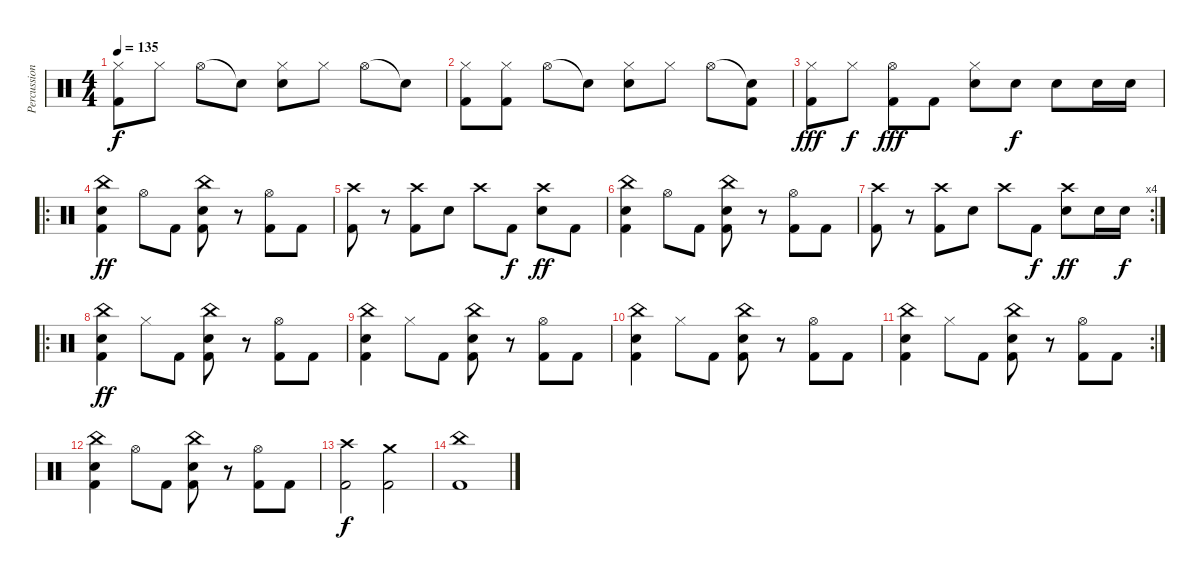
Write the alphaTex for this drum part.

\track ("Percussion" "Percussion") {instrument percussion}
\staff {score}
\articulation defaults
\ts (4 4)
\tempo 135
\clef neutral
\ks c
("Hi-Hat (closed)" "Kick (hit) 2").8{dy f} "Hi-Hat (closed)".8 "Hi-Hat (open)".8 "Snare (hit)"{t}.8 ("Hi-Hat (closed)" "Electric Snare (hit)").8 "Hi-Hat (closed)".8 "Hi-Hat (open)".8 "Snare (hit)"{t}.8 |
("Hi-Hat (closed)" "Kick (hit) 2").8 ("Hi-Hat (closed)" "Kick (hit) 2").8 "Hi-Hat (open)".8 "Snare (hit)"{t}.8 ("Hi-Hat (closed)" "Electric Snare (hit)").8 "Hi-Hat (closed)".8 "Hi-Hat (open)".8 ("Snare (hit)"{t} "Kick (hit) 2").8 |
("Hi-Hat (closed)" "Kick (hit) 2").8{dy fff} "Hi-Hat (closed)".8{dy f} ("Hi-Hat (open)" "Kick (hit) 2").8{dy fff} "Kick (hit) 2".8 ("Hi-Hat (closed)" "Electric Snare (hit)").8 "Electric Snare (hit)".8{dy f} "Electric Snare (hit)".8 "Electric Snare (hit)".16 "Electric Snare (hit)".16 |
\ro
("China (hit)" "Snare (hit) 2" "Kick (hit) 2").4{dy ff} "Hi-Hat (open)".8 "Kick (hit) 2".8 ("China (hit)" "Snare (hit) 2" "Kick (hit) 2").8 r.8 ("Hi-Hat (open)" "Kick (hit) 2").8 "Kick (hit) 2".8 |
("Crash high (hit)" "Kick (hit) 2").8 r.8 ("Crash high (hit)" "Kick (hit) 2").8 "Electric Snare (hit)".8 "Crash high (hit)".8 "Kick (hit) 2".8{dy f} ("Crash high (hit)" "Electric Snare (hit)").8{dy ff} "Kick (hit) 2".8 |
("China (hit)" "Snare (hit) 2" "Kick (hit) 2").4 "Hi-Hat (open)".8 "Kick (hit) 2".8 ("China (hit)" "Snare (hit) 2" "Kick (hit) 2").8 r.8 ("Hi-Hat (open)" "Kick (hit) 2").8 "Kick (hit) 2".8 |
\rc 4
("Crash high (hit)" "Kick (hit) 2").8 r.8 ("Crash high (hit)" "Kick (hit) 2").8 "Electric Snare (hit)".8 "Crash high (hit)".8 "Kick (hit) 2".8{dy f} ("Crash high (hit)" "Electric Snare (hit)").8{dy ff} "Electric Snare (hit)".16 "Electric Snare (hit)".16{dy f} |
\ro
("China (hit)" "Snare (hit) 2" "Kick (hit) 2").4{dy ff} "Hi-Hat (closed)".8 "Kick (hit) 2".8 ("China (hit)" "Snare (hit) 2" "Kick (hit) 2").8 r.8 ("Hi-Hat (open)" "Kick (hit) 2").8 "Kick (hit) 2".8 |
("China (hit)" "Snare (hit) 2" "Kick (hit) 2").4 "Hi-Hat (closed)".8 "Kick (hit) 2".8 ("China (hit)" "Snare (hit) 2" "Kick (hit) 2").8 r.8 ("Hi-Hat (open)" "Kick (hit) 2").8 "Kick (hit) 2".8 |
("China (hit)" "Snare (hit) 2" "Kick (hit) 2").4 "Hi-Hat (closed)".8 "Kick (hit) 2".8 ("China (hit)" "Snare (hit) 2" "Kick (hit) 2").8 r.8 ("Hi-Hat (open)" "Kick (hit) 2").8 "Kick (hit) 2".8 |
\rc 2
("China (hit)" "Snare (hit) 2" "Kick (hit) 2").4 "Hi-Hat (closed)".8 "Kick (hit) 2".8 ("China (hit)" "Snare (hit) 2" "Kick (hit) 2").8 r.8 ("Hi-Hat (open)" "Kick (hit) 2").8 "Kick (hit) 2".8 |
("China (hit)" "Snare (hit) 2" "Kick (hit) 2").4 "Hi-Hat (open)".8 "Kick (hit) 2".8 ("China (hit)" "Snare (hit) 2" "Kick (hit) 2").8 r.8 ("Hi-Hat (open)" "Kick (hit) 2").8 "Kick (hit) 2".8 |
("Crash high (hit)" "Kick (hit) 2").2{dy f} ("Crash medium (hit)" "Kick (hit) 2").2 |
("China (hit)" "Kick (hit) 2").1
